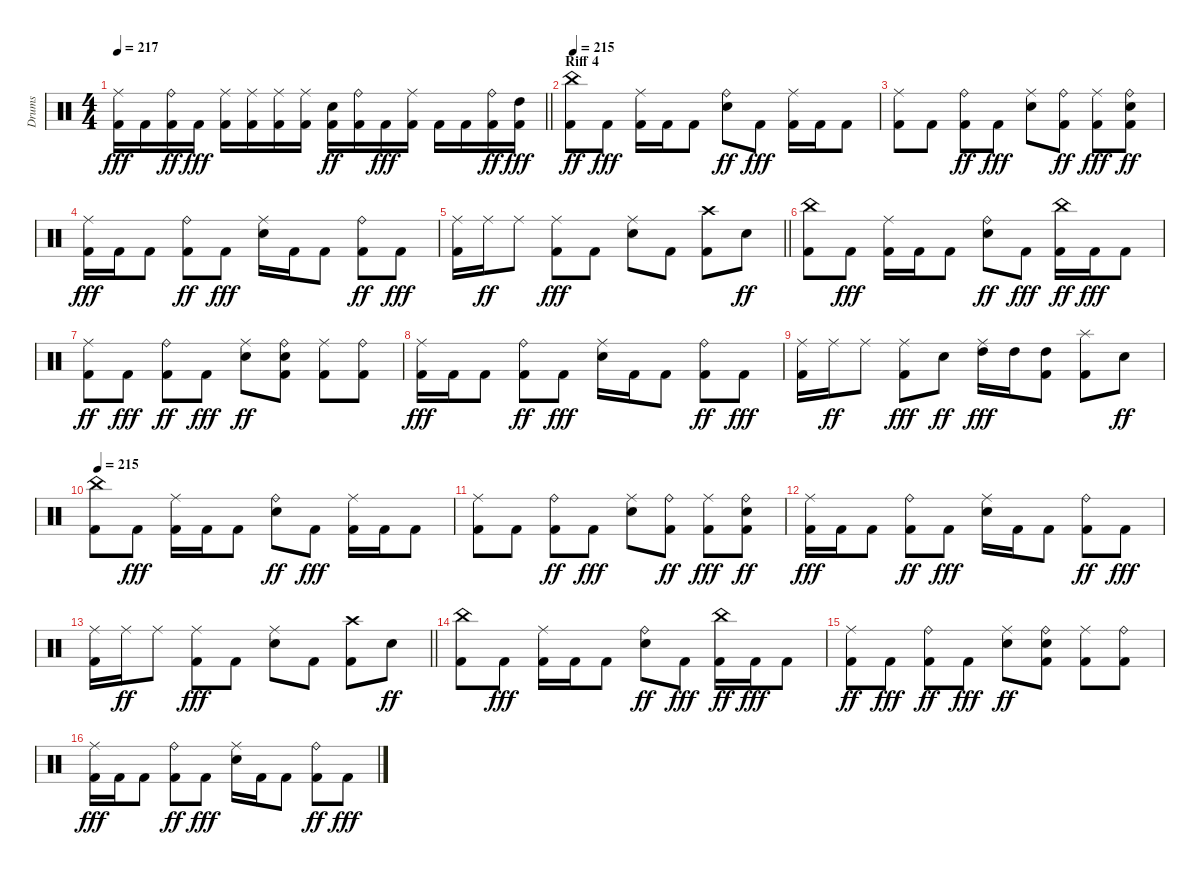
\track ("Drums" "Drums") {instrument percussion}
\staff {score}
\articulation defaults
\ts (4 4)
\tempo 217
\clef neutral
\barLineRight lightlight
\ks c
("Kick (hit) 2" "Ride (middle)").16{dy fff} "Kick (hit) 2".16 ("Kick (hit) 2" "Ride (bell)").16{dy ff} "Kick (hit) 2".16{dy fff} ("Kick (hit) 2" "Ride (middle)").16 ("Kick (hit) 2" "Ride (middle)").16 ("Kick (hit) 2" "Ride (middle)").16 ("Kick (hit) 2" "Ride (middle)").16 ("Kick (hit) 2" "Snare (hit) 2").16{dy ff} ("Kick (hit) 2" "Ride (bell)").16 "Kick (hit) 2".16{dy fff} ("Kick (hit) 2" "Ride (middle)").16 "Kick (hit) 2".16 "Kick (hit) 2".16 ("Kick (hit) 2" "Ride (bell)").16{dy ff} ("Kick (hit) 2" "High Tom (hit)").16{dy fff} |
\section ("" "Riff 4")
\tempo 215
("Kick (hit) 2" "China (hit)").8{dy ff} "Kick (hit) 2".8{dy fff} ("Kick (hit) 2" "Ride (middle)").16 "Kick (hit) 2".16 "Kick (hit) 2".8 ("Snare (hit) 2" "Ride (bell)").8{dy ff} "Kick (hit) 2".8{dy fff} ("Kick (hit) 2" "Ride (middle)").16 "Kick (hit) 2".16 "Kick (hit) 2".8 |
("Kick (hit) 2" "Ride (middle)").8 "Kick (hit) 2".8 ("Kick (hit) 2" "Ride (bell)").8{dy ff} "Kick (hit) 2".8{dy fff} ("Snare (hit) 2" "Ride (middle)").8 ("Kick (hit) 2" "Ride (bell)").8{dy ff} ("Kick (hit) 2" "Ride (middle)").8{dy fff} ("Kick (hit) 2" "Snare (hit) 2" "Ride (bell)").8{dy ff} |
("Kick (hit) 2" "Ride (middle)").16{dy fff} "Kick (hit) 2".16 "Kick (hit) 2".8 ("Kick (hit) 2" "Ride (bell)").8{dy ff} "Kick (hit) 2".8{dy fff} ("Snare (hit) 2" "Ride (middle)").16 "Kick (hit) 2".16 "Kick (hit) 2".8 ("Kick (hit) 2" "Ride (bell)").8{dy ff} "Kick (hit) 2".8{dy fff} |
\barLineRight lightlight
("Kick (hit) 2" "Ride (middle)").16 "Ride (middle)".16{dy ff} "Ride (middle)".8 ("Kick (hit) 2" "Ride (middle)").8{dy fff} "Kick (hit) 2".8 ("Snare (hit) 2" "Ride (middle)").8 "Kick (hit) 2".8 ("Kick (hit) 2" "Crash high (hit)").8 "Snare (hit) 2".8{dy ff} |
("Kick (hit) 2" "China (hit)").8 "Kick (hit) 2".8{dy fff} ("Kick (hit) 2" "Ride (middle)").16 "Kick (hit) 2".16 "Kick (hit) 2".8 ("Snare (hit) 2" "Ride (bell)").8{dy ff} "Kick (hit) 2".8{dy fff} ("Kick (hit) 2" "China (hit)").16{dy ff} "Kick (hit) 2".16{dy fff} "Kick (hit) 2".8 |
("Kick (hit) 2" "Ride (middle)").8{dy ff} "Kick (hit) 2".8{dy fff} ("Kick (hit) 2" "Ride (bell)").8{dy ff} "Kick (hit) 2".8{dy fff} ("Snare (hit) 2" "Ride (middle)").8{dy ff} ("Kick (hit) 2" "Snare (hit) 2" "Ride (bell)").8 ("Kick (hit) 2" "Ride (middle)").8 ("Kick (hit) 2" "Ride (bell)").8 |
("Kick (hit) 2" "Ride (middle)").16{dy fff} "Kick (hit) 2".16 "Kick (hit) 2".8 ("Kick (hit) 2" "Ride (bell)").8{dy ff} "Kick (hit) 2".8{dy fff} ("Snare (hit) 2" "Ride (middle)").16 "Kick (hit) 2".16 "Kick (hit) 2".8 ("Kick (hit) 2" "Ride (bell)").8{dy ff} "Kick (hit) 2".8{dy fff} |
("Kick (hit) 2" "Ride (middle)").16 "Ride (middle)".16{dy ff} "Ride (middle)".8 ("Kick (hit) 2" "Ride (middle)").8{dy fff} "Snare (hit) 2".8{dy ff} ("High Tom (hit)" "Ride (middle)").16{dy fff} "High Tom (hit)".16 ("Kick (hit) 2" "High Tom (hit)").8 ("Kick (hit) 2" "Splash (hit)").8 "Snare (hit) 2".8{dy ff} |
\tempo 215
("Kick (hit) 2" "China (hit)").8 "Kick (hit) 2".8{dy fff} ("Kick (hit) 2" "Ride (middle)").16 "Kick (hit) 2".16 "Kick (hit) 2".8 ("Snare (hit) 2" "Ride (bell)").8{dy ff} "Kick (hit) 2".8{dy fff} ("Kick (hit) 2" "Ride (middle)").16 "Kick (hit) 2".16 "Kick (hit) 2".8 |
("Kick (hit) 2" "Ride (middle)").8 "Kick (hit) 2".8 ("Kick (hit) 2" "Ride (bell)").8{dy ff} "Kick (hit) 2".8{dy fff} ("Snare (hit) 2" "Ride (middle)").8 ("Kick (hit) 2" "Ride (bell)").8{dy ff} ("Kick (hit) 2" "Ride (middle)").8{dy fff} ("Kick (hit) 2" "Snare (hit) 2" "Ride (bell)").8{dy ff} |
("Kick (hit) 2" "Ride (middle)").16{dy fff} "Kick (hit) 2".16 "Kick (hit) 2".8 ("Kick (hit) 2" "Ride (bell)").8{dy ff} "Kick (hit) 2".8{dy fff} ("Snare (hit) 2" "Ride (middle)").16 "Kick (hit) 2".16 "Kick (hit) 2".8 ("Kick (hit) 2" "Ride (bell)").8{dy ff} "Kick (hit) 2".8{dy fff} |
\barLineRight lightlight
("Kick (hit) 2" "Ride (middle)").16 "Ride (middle)".16{dy ff} "Ride (middle)".8 ("Kick (hit) 2" "Ride (middle)").8{dy fff} "Kick (hit) 2".8 ("Snare (hit) 2" "Ride (middle)").8 "Kick (hit) 2".8 ("Kick (hit) 2" "Crash high (hit)").8 "Snare (hit) 2".8{dy ff} |
("Kick (hit) 2" "China (hit)").8 "Kick (hit) 2".8{dy fff} ("Kick (hit) 2" "Ride (middle)").16 "Kick (hit) 2".16 "Kick (hit) 2".8 ("Snare (hit) 2" "Ride (bell)").8{dy ff} "Kick (hit) 2".8{dy fff} ("Kick (hit) 2" "China (hit)").16{dy ff} "Kick (hit) 2".16{dy fff} "Kick (hit) 2".8 |
("Kick (hit) 2" "Ride (middle)").8{dy ff} "Kick (hit) 2".8{dy fff} ("Kick (hit) 2" "Ride (bell)").8{dy ff} "Kick (hit) 2".8{dy fff} ("Snare (hit) 2" "Ride (middle)").8{dy ff} ("Kick (hit) 2" "Snare (hit) 2" "Ride (bell)").8 ("Kick (hit) 2" "Ride (middle)").8 ("Kick (hit) 2" "Ride (bell)").8 |
("Kick (hit) 2" "Ride (middle)").16{dy fff} "Kick (hit) 2".16 "Kick (hit) 2".8 ("Kick (hit) 2" "Ride (bell)").8{dy ff} "Kick (hit) 2".8{dy fff} ("Snare (hit) 2" "Ride (middle)").16 "Kick (hit) 2".16 "Kick (hit) 2".8 ("Kick (hit) 2" "Ride (bell)").8{dy ff} "Kick (hit) 2".8{dy fff}
